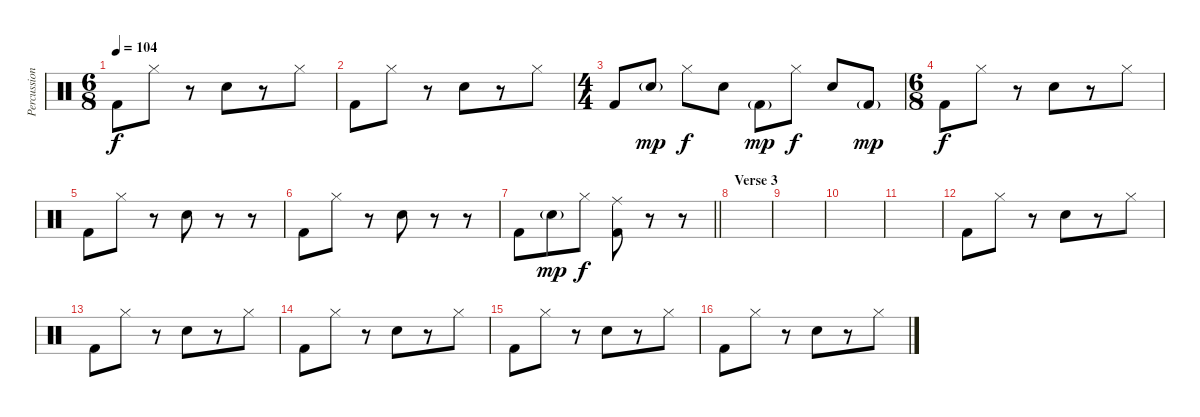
\track ("Percussion" "Percussion") {instrument percussion}
\staff {score}
\articulation defaults
\ts (6 8)
\tempo 104
\clef neutral
\ks c "Kick (hit) 2".8{dy f} "Hi-Hat (closed)".8
r.8 "Snare (hit) 2".8 r.8 "Hi-Hat (closed)".8 |
"Kick (hit) 2".8 "Hi-Hat (closed)".8 r.8 "Snare (hit) 2".8 r.8 "Hi-Hat (closed)".8 |
\ts (4 4)
"Kick (hit) 2".8 "Snare (hit) 2"{g}.8{dy mp} "Hi-Hat (closed)".8{dy f} "Snare (hit) 2".8 "Kick (hit) 2"{g}.8{dy mp} "Hi-Hat (closed)".8{dy f} "Snare (hit) 2".8 "Kick (hit) 2"{g}.8{dy mp} |
\ts (6 8)
"Kick (hit) 2".8{dy f} "Hi-Hat (closed)".8 r.8 "Snare (hit) 2".8 r.8 "Hi-Hat (closed)".8 |
"Kick (hit) 2".8 "Hi-Hat (closed)".8 r.8 "Snare (hit) 2".8 r.8 r.8 |
"Kick (hit) 2".8 "Hi-Hat (closed)".8 r.8 "Snare (hit) 2".8 r.8 r.8 |
\barLineRight lightlight "Kick (hit) 2".8 "Snare (hit) 2"{g}.8{dy mp} "Hi-Hat (closed)".8{dy f}
("Ride (middle)" "Kick (hit) 2").8 r.8 r.8 |
\section ("" "Verse 3")
|
|
|
|
"Kick (hit) 2".8 "Hi-Hat (closed)".8 r.8 "Snare (hit) 2".8 r.8 "Hi-Hat (closed)".8 |
"Kick (hit) 2".8 "Hi-Hat (closed)".8 r.8 "Snare (hit) 2".8 r.8 "Hi-Hat (closed)".8 |
"Kick (hit) 2".8 "Hi-Hat (closed)".8 r.8 "Snare (hit) 2".8 r.8 "Hi-Hat (closed)".8 |
"Kick (hit) 2".8 "Hi-Hat (closed)".8 r.8 "Snare (hit) 2".8 r.8 "Hi-Hat (closed)".8 |
"Kick (hit) 2".8 "Hi-Hat (closed)".8 r.8 "Snare (hit) 2".8 r.8 "Hi-Hat (closed)".8
